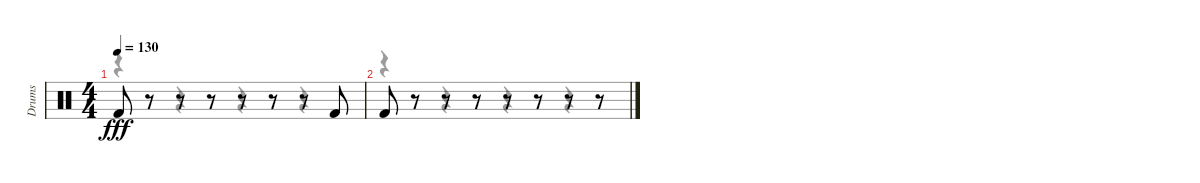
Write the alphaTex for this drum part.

\track ("Drums" "Drums") {instrument percussion}
\staff {score}
\articulation defaults
\voice
\ts (4 4)
\tempo 130
\clef neutral
\ks c "Kick (hit) 2".8{dy fff}
r.8 r.8 r.8 r.8 r.8 r.8 "Kick (hit) 2".8 |
"Kick (hit) 2".8 r.8 r.8 r.8 r.8 r.8 r.8 r.8
\voice
\clef neutral
\ottava regular
\simile none
\ks c
r.4{dy f} r.4 r.4 r.4 |
r.4 r.4 r.4 r.4
